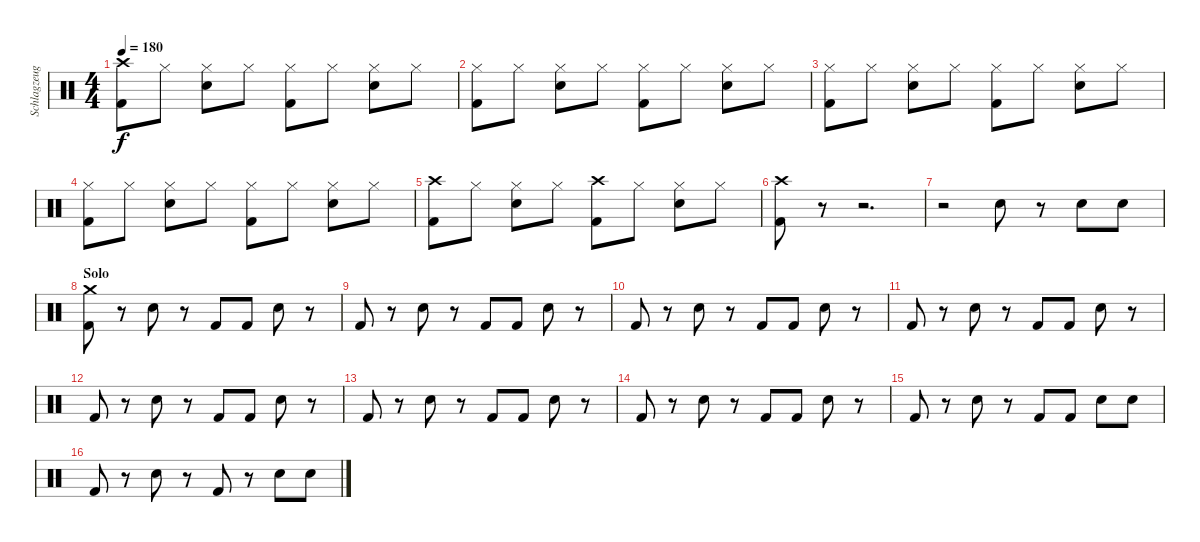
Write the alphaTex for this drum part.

\track ("Schlagzeug" "Schlagzeug") {instrument percussion}
\staff {score}
\articulation defaults
\ts (4 4)
\tempo 180
\clef neutral
\ks c
("Kick (hit) 2" "Crash high (hit)").8{dy f} "Hi-Hat (closed)".8 ("Hi-Hat (closed)" "Snare (hit) 2").8 "Hi-Hat (closed)".8 ("Hi-Hat (closed)" "Kick (hit) 2").8 "Hi-Hat (closed)".8 ("Hi-Hat (closed)" "Snare (hit) 2").8 "Hi-Hat (closed)".8 |
("Hi-Hat (closed)" "Kick (hit) 2").8 "Hi-Hat (closed)".8 ("Hi-Hat (closed)" "Snare (hit) 2").8 "Hi-Hat (closed)".8 ("Hi-Hat (closed)" "Kick (hit) 2").8 "Hi-Hat (closed)".8 ("Hi-Hat (closed)" "Snare (hit) 2").8 "Hi-Hat (closed)".8 |
("Hi-Hat (closed)" "Kick (hit) 2").8 "Hi-Hat (closed)".8 ("Hi-Hat (closed)" "Snare (hit) 2").8 "Hi-Hat (closed)".8 ("Hi-Hat (closed)" "Kick (hit) 2").8 "Hi-Hat (closed)".8 ("Hi-Hat (closed)" "Snare (hit) 2").8 "Hi-Hat (closed)".8 |
("Hi-Hat (closed)" "Kick (hit) 2").8 "Hi-Hat (closed)".8 ("Hi-Hat (closed)" "Snare (hit) 2").8 "Hi-Hat (closed)".8 ("Hi-Hat (closed)" "Kick (hit) 2").8 "Hi-Hat (closed)".8 ("Hi-Hat (closed)" "Snare (hit) 2").8 "Hi-Hat (closed)".8 |
("Kick (hit) 2" "Crash high (hit)").8 "Hi-Hat (closed)".8 ("Snare (hit) 2" "Hi-Hat (closed)").8 "Hi-Hat (closed)".8 ("Crash high (hit)" "Kick (hit) 2").8 "Hi-Hat (closed)".8 ("Hi-Hat (closed)" "Snare (hit) 2").8 "Hi-Hat (closed)".8 |
("Kick (hit) 2" "Crash high (hit)").8 r.8 r.2{d} |
r.2 "Snare (hit) 2".8 r.8 "Snare (hit) 2".8 "Snare (hit) 2".8 |
\section ("" "Solo")
("Crash medium (hit)" "Kick (hit) 2").8 r.8 "Snare (hit) 2".8 r.8 "Kick (hit) 2".8 "Kick (hit) 2".8 "Snare (hit) 2".8 r.8 |
"Kick (hit) 2".8 r.8 "Snare (hit) 2".8 r.8 "Kick (hit) 2".8 "Kick (hit) 2".8 "Snare (hit) 2".8 r.8 |
"Kick (hit) 2".8 r.8 "Snare (hit) 2".8 r.8 "Kick (hit) 2".8 "Kick (hit) 2".8 "Snare (hit) 2".8 r.8 |
"Kick (hit) 2".8 r.8 "Snare (hit) 2".8 r.8 "Kick (hit) 2".8 "Kick (hit) 2".8 "Snare (hit) 2".8 r.8 |
"Kick (hit) 2".8 r.8 "Snare (hit) 2".8 r.8 "Kick (hit) 2".8 "Kick (hit) 2".8 "Snare (hit) 2".8 r.8 |
"Kick (hit) 2".8 r.8 "Snare (hit) 2".8 r.8 "Kick (hit) 2".8 "Kick (hit) 2".8 "Snare (hit) 2".8 r.8 |
"Kick (hit) 2".8 r.8 "Snare (hit) 2".8 r.8 "Kick (hit) 2".8 "Kick (hit) 2".8 "Snare (hit) 2".8 r.8 |
"Kick (hit) 2".8 r.8 "Snare (hit) 2".8 r.8 "Kick (hit) 2".8 "Kick (hit) 2".8 "Snare (hit) 2".8 "Snare (hit) 2".8 |
"Kick (hit) 2".8 r.8 "Snare (hit) 2".8 r.8 "Kick (hit) 2".8 r.8 "Snare (hit) 2".8 "Snare (hit) 2".8
